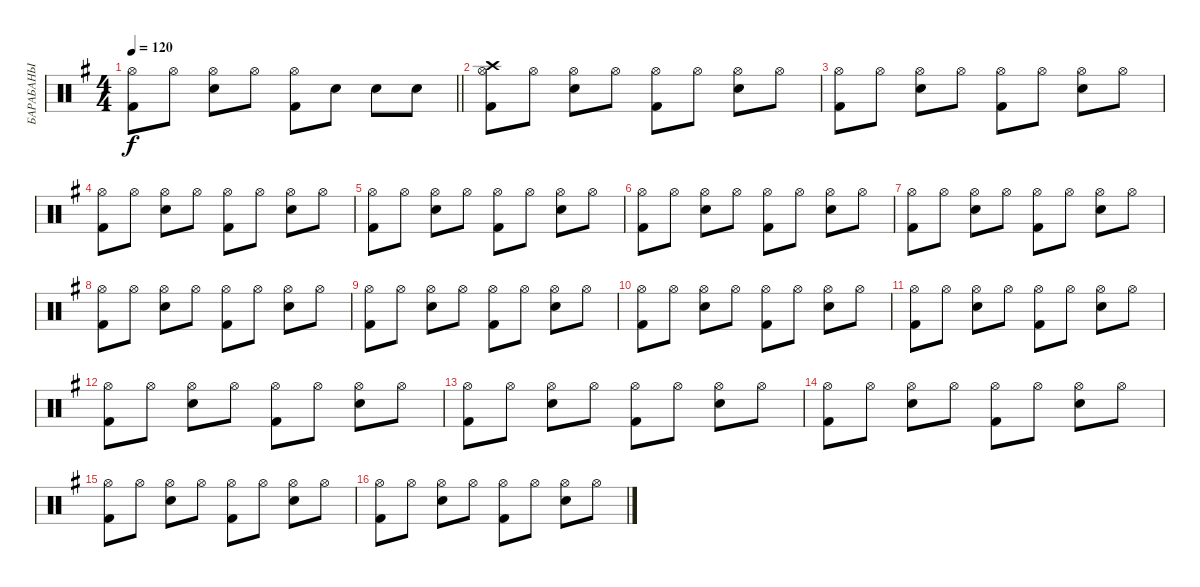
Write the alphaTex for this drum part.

\track ("БАРАБАНЫ" "БАРАБАНЫ") {instrument percussion}
\staff {score}
\articulation defaults
\ts (4 4)
\tempo 120
\clef neutral
\barLineRight lightlight
\ks g
("Hi-Hat (open)" "Kick (hit) 2").8{dy f} "Hi-Hat (open)".8 ("Hi-Hat (open)" "Electric Snare (hit)").8 "Hi-Hat (open)".8 ("Hi-Hat (open)" "Kick (hit) 2").8 "Electric Snare (hit)".8 "Electric Snare (hit)".8 "Electric Snare (hit)".8 |
("Hi-Hat (open)" "Crash high (hit)" "Kick (hit) 2").8 "Hi-Hat (open)".8 ("Hi-Hat (open)" "Electric Snare (hit)").8 "Hi-Hat (open)".8 ("Hi-Hat (open)" "Kick (hit) 2").8 "Hi-Hat (open)".8 ("Hi-Hat (open)" "Electric Snare (hit)").8 "Hi-Hat (open)".8 |
("Hi-Hat (open)" "Kick (hit) 2").8 "Hi-Hat (open)".8 ("Hi-Hat (open)" "Electric Snare (hit)").8 "Hi-Hat (open)".8 ("Hi-Hat (open)" "Kick (hit) 2").8 "Hi-Hat (open)".8 ("Hi-Hat (open)" "Electric Snare (hit)").8 "Hi-Hat (open)".8 |
("Hi-Hat (open)" "Kick (hit) 2").8 "Hi-Hat (open)".8 ("Hi-Hat (open)" "Electric Snare (hit)").8 "Hi-Hat (open)".8 ("Hi-Hat (open)" "Kick (hit) 2").8 "Hi-Hat (open)".8 ("Hi-Hat (open)" "Electric Snare (hit)").8 "Hi-Hat (open)".8 |
("Hi-Hat (open)" "Kick (hit) 2").8 "Hi-Hat (open)".8 ("Hi-Hat (open)" "Electric Snare (hit)").8 "Hi-Hat (open)".8 ("Hi-Hat (open)" "Kick (hit) 2").8 "Hi-Hat (open)".8 ("Hi-Hat (open)" "Electric Snare (hit)").8 "Hi-Hat (open)".8 |
("Hi-Hat (open)" "Kick (hit) 2").8 "Hi-Hat (open)".8 ("Hi-Hat (open)" "Electric Snare (hit)").8 "Hi-Hat (open)".8 ("Hi-Hat (open)" "Kick (hit) 2").8 "Hi-Hat (open)".8 ("Hi-Hat (open)" "Electric Snare (hit)").8 "Hi-Hat (open)".8 |
("Hi-Hat (open)" "Kick (hit) 2").8 "Hi-Hat (open)".8 ("Hi-Hat (open)" "Electric Snare (hit)").8 "Hi-Hat (open)".8 ("Hi-Hat (open)" "Kick (hit) 2").8 "Hi-Hat (open)".8 ("Hi-Hat (open)" "Electric Snare (hit)").8 "Hi-Hat (open)".8 |
("Hi-Hat (open)" "Kick (hit) 2").8 "Hi-Hat (open)".8 ("Hi-Hat (open)" "Electric Snare (hit)").8 "Hi-Hat (open)".8 ("Hi-Hat (open)" "Kick (hit) 2").8 "Hi-Hat (open)".8 ("Hi-Hat (open)" "Electric Snare (hit)").8 "Hi-Hat (open)".8 |
("Hi-Hat (open)" "Kick (hit) 2").8 "Hi-Hat (open)".8 ("Hi-Hat (open)" "Electric Snare (hit)").8 "Hi-Hat (open)".8 ("Hi-Hat (open)" "Kick (hit) 2").8 "Hi-Hat (open)".8 ("Hi-Hat (open)" "Electric Snare (hit)").8 "Hi-Hat (open)".8 |
("Hi-Hat (open)" "Kick (hit) 2").8 "Hi-Hat (open)".8 ("Hi-Hat (open)" "Electric Snare (hit)").8 "Hi-Hat (open)".8 ("Hi-Hat (open)" "Kick (hit) 2").8 "Hi-Hat (open)".8 ("Hi-Hat (open)" "Electric Snare (hit)").8 "Hi-Hat (open)".8 |
("Hi-Hat (open)" "Kick (hit) 2").8 "Hi-Hat (open)".8 ("Hi-Hat (open)" "Electric Snare (hit)").8 "Hi-Hat (open)".8 ("Hi-Hat (open)" "Kick (hit) 2").8 "Hi-Hat (open)".8 ("Hi-Hat (open)" "Electric Snare (hit)").8 "Hi-Hat (open)".8 |
("Hi-Hat (open)" "Kick (hit) 2").8 "Hi-Hat (open)".8 ("Hi-Hat (open)" "Electric Snare (hit)").8 "Hi-Hat (open)".8 ("Hi-Hat (open)" "Kick (hit) 2").8 "Hi-Hat (open)".8 ("Hi-Hat (open)" "Electric Snare (hit)").8 "Hi-Hat (open)".8 |
("Hi-Hat (open)" "Kick (hit) 2").8 "Hi-Hat (open)".8 ("Hi-Hat (open)" "Electric Snare (hit)").8 "Hi-Hat (open)".8 ("Hi-Hat (open)" "Kick (hit) 2").8 "Hi-Hat (open)".8 ("Hi-Hat (open)" "Electric Snare (hit)").8 "Hi-Hat (open)".8 |
("Hi-Hat (open)" "Kick (hit) 2").8 "Hi-Hat (open)".8 ("Hi-Hat (open)" "Electric Snare (hit)").8 "Hi-Hat (open)".8 ("Hi-Hat (open)" "Kick (hit) 2").8 "Hi-Hat (open)".8 ("Hi-Hat (open)" "Electric Snare (hit)").8 "Hi-Hat (open)".8 |
("Hi-Hat (open)" "Kick (hit) 2").8 "Hi-Hat (open)".8 ("Hi-Hat (open)" "Electric Snare (hit)").8 "Hi-Hat (open)".8 ("Hi-Hat (open)" "Kick (hit) 2").8 "Hi-Hat (open)".8 ("Hi-Hat (open)" "Electric Snare (hit)").8 "Hi-Hat (open)".8 |
("Hi-Hat (open)" "Kick (hit) 2").8 "Hi-Hat (open)".8 ("Hi-Hat (open)" "Electric Snare (hit)").8 "Hi-Hat (open)".8 ("Hi-Hat (open)" "Kick (hit) 2").8 "Hi-Hat (open)".8 ("Hi-Hat (open)" "Electric Snare (hit)").8 "Hi-Hat (open)".8
